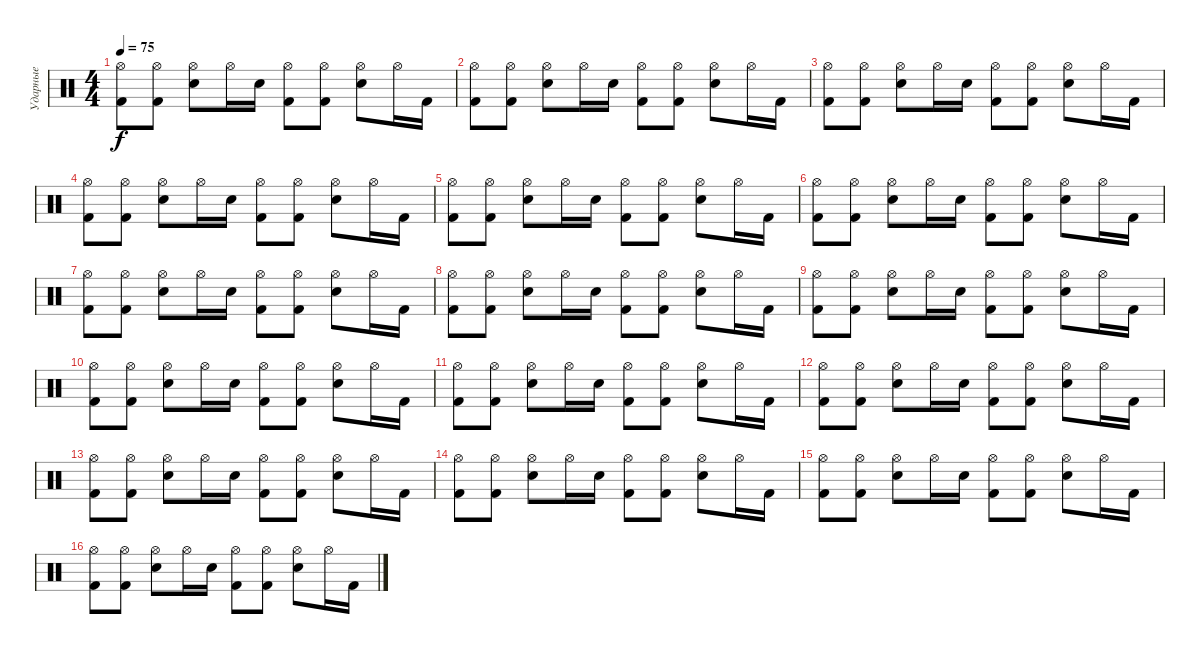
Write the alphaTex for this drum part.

\track ("Ударные" "Ударные") {instrument percussion}
\staff {score}
\articulation defaults
\ts (4 4)
\tempo 75
\clef neutral
\ks c
("Hi-Hat (open)" "Kick (hit) 2").8{dy f} ("Hi-Hat (open)" "Kick (hit) 2").8 ("Hi-Hat (open)" "Electric Snare (hit)").8 "Hi-Hat (open)".16 "Electric Snare (hit)".16 ("Hi-Hat (open)" "Kick (hit) 2").8 ("Hi-Hat (open)" "Kick (hit) 2").8 ("Hi-Hat (open)" "Electric Snare (hit)").8 "Hi-Hat (open)".16 "Kick (hit) 2".16 |
("Hi-Hat (open)" "Kick (hit) 2").8 ("Hi-Hat (open)" "Kick (hit) 2").8 ("Hi-Hat (open)" "Electric Snare (hit)").8 "Hi-Hat (open)".16 "Electric Snare (hit)".16 ("Hi-Hat (open)" "Kick (hit) 2").8 ("Hi-Hat (open)" "Kick (hit) 2").8 ("Hi-Hat (open)" "Electric Snare (hit)").8 "Hi-Hat (open)".16 "Kick (hit) 2".16 |
("Hi-Hat (open)" "Kick (hit) 2").8 ("Hi-Hat (open)" "Kick (hit) 2").8 ("Hi-Hat (open)" "Electric Snare (hit)").8 "Hi-Hat (open)".16 "Electric Snare (hit)".16 ("Hi-Hat (open)" "Kick (hit) 2").8 ("Hi-Hat (open)" "Kick (hit) 2").8 ("Hi-Hat (open)" "Electric Snare (hit)").8 "Hi-Hat (open)".16 "Kick (hit) 2".16 |
("Hi-Hat (open)" "Kick (hit) 2").8 ("Hi-Hat (open)" "Kick (hit) 2").8 ("Hi-Hat (open)" "Electric Snare (hit)").8 "Hi-Hat (open)".16 "Electric Snare (hit)".16 ("Hi-Hat (open)" "Kick (hit) 2").8 ("Hi-Hat (open)" "Kick (hit) 2").8 ("Hi-Hat (open)" "Electric Snare (hit)").8 "Hi-Hat (open)".16 "Kick (hit) 2".16 |
("Hi-Hat (open)" "Kick (hit) 2").8 ("Hi-Hat (open)" "Kick (hit) 2").8 ("Hi-Hat (open)" "Electric Snare (hit)").8 "Hi-Hat (open)".16 "Electric Snare (hit)".16 ("Hi-Hat (open)" "Kick (hit) 2").8 ("Hi-Hat (open)" "Kick (hit) 2").8 ("Hi-Hat (open)" "Electric Snare (hit)").8 "Hi-Hat (open)".16 "Kick (hit) 2".16 |
("Hi-Hat (open)" "Kick (hit) 2").8 ("Hi-Hat (open)" "Kick (hit) 2").8 ("Hi-Hat (open)" "Electric Snare (hit)").8 "Hi-Hat (open)".16 "Electric Snare (hit)".16 ("Hi-Hat (open)" "Kick (hit) 2").8 ("Hi-Hat (open)" "Kick (hit) 2").8 ("Hi-Hat (open)" "Electric Snare (hit)").8 "Hi-Hat (open)".16 "Kick (hit) 2".16 |
("Hi-Hat (open)" "Kick (hit) 2").8 ("Hi-Hat (open)" "Kick (hit) 2").8 ("Hi-Hat (open)" "Electric Snare (hit)").8 "Hi-Hat (open)".16 "Electric Snare (hit)".16 ("Hi-Hat (open)" "Kick (hit) 2").8 ("Hi-Hat (open)" "Kick (hit) 2").8 ("Hi-Hat (open)" "Electric Snare (hit)").8 "Hi-Hat (open)".16 "Kick (hit) 2".16 |
("Hi-Hat (open)" "Kick (hit) 2").8 ("Hi-Hat (open)" "Kick (hit) 2").8 ("Hi-Hat (open)" "Electric Snare (hit)").8 "Hi-Hat (open)".16 "Electric Snare (hit)".16 ("Hi-Hat (open)" "Kick (hit) 2").8 ("Hi-Hat (open)" "Kick (hit) 2").8 ("Hi-Hat (open)" "Electric Snare (hit)").8 "Hi-Hat (open)".16 "Kick (hit) 2".16 |
("Hi-Hat (open)" "Kick (hit) 2").8 ("Hi-Hat (open)" "Kick (hit) 2").8 ("Hi-Hat (open)" "Electric Snare (hit)").8 "Hi-Hat (open)".16 "Electric Snare (hit)".16 ("Hi-Hat (open)" "Kick (hit) 2").8 ("Hi-Hat (open)" "Kick (hit) 2").8 ("Hi-Hat (open)" "Electric Snare (hit)").8 "Hi-Hat (open)".16 "Kick (hit) 2".16 |
("Hi-Hat (open)" "Kick (hit) 2").8 ("Hi-Hat (open)" "Kick (hit) 2").8 ("Hi-Hat (open)" "Electric Snare (hit)").8 "Hi-Hat (open)".16 "Electric Snare (hit)".16 ("Hi-Hat (open)" "Kick (hit) 2").8 ("Hi-Hat (open)" "Kick (hit) 2").8 ("Hi-Hat (open)" "Electric Snare (hit)").8 "Hi-Hat (open)".16 "Kick (hit) 2".16 |
("Hi-Hat (open)" "Kick (hit) 2").8 ("Hi-Hat (open)" "Kick (hit) 2").8 ("Hi-Hat (open)" "Electric Snare (hit)").8 "Hi-Hat (open)".16 "Electric Snare (hit)".16 ("Hi-Hat (open)" "Kick (hit) 2").8 ("Hi-Hat (open)" "Kick (hit) 2").8 ("Hi-Hat (open)" "Electric Snare (hit)").8 "Hi-Hat (open)".16 "Kick (hit) 2".16 |
("Hi-Hat (open)" "Kick (hit) 2").8 ("Hi-Hat (open)" "Kick (hit) 2").8 ("Hi-Hat (open)" "Electric Snare (hit)").8 "Hi-Hat (open)".16 "Electric Snare (hit)".16 ("Hi-Hat (open)" "Kick (hit) 2").8 ("Hi-Hat (open)" "Kick (hit) 2").8 ("Hi-Hat (open)" "Electric Snare (hit)").8 "Hi-Hat (open)".16 "Kick (hit) 2".16 |
("Hi-Hat (open)" "Kick (hit) 2").8 ("Hi-Hat (open)" "Kick (hit) 2").8 ("Hi-Hat (open)" "Electric Snare (hit)").8 "Hi-Hat (open)".16 "Electric Snare (hit)".16 ("Hi-Hat (open)" "Kick (hit) 2").8 ("Hi-Hat (open)" "Kick (hit) 2").8 ("Hi-Hat (open)" "Electric Snare (hit)").8 "Hi-Hat (open)".16 "Kick (hit) 2".16 |
("Hi-Hat (open)" "Kick (hit) 2").8 ("Hi-Hat (open)" "Kick (hit) 2").8 ("Hi-Hat (open)" "Electric Snare (hit)").8 "Hi-Hat (open)".16 "Electric Snare (hit)".16 ("Hi-Hat (open)" "Kick (hit) 2").8 ("Hi-Hat (open)" "Kick (hit) 2").8 ("Hi-Hat (open)" "Electric Snare (hit)").8 "Hi-Hat (open)".16 "Kick (hit) 2".16 |
("Hi-Hat (open)" "Kick (hit) 2").8 ("Hi-Hat (open)" "Kick (hit) 2").8 ("Hi-Hat (open)" "Electric Snare (hit)").8 "Hi-Hat (open)".16 "Electric Snare (hit)".16 ("Hi-Hat (open)" "Kick (hit) 2").8 ("Hi-Hat (open)" "Kick (hit) 2").8 ("Hi-Hat (open)" "Electric Snare (hit)").8 "Hi-Hat (open)".16 "Kick (hit) 2".16 |
("Hi-Hat (open)" "Kick (hit) 2").8 ("Hi-Hat (open)" "Kick (hit) 2").8 ("Hi-Hat (open)" "Electric Snare (hit)").8 "Hi-Hat (open)".16 "Electric Snare (hit)".16 ("Hi-Hat (open)" "Kick (hit) 2").8 ("Hi-Hat (open)" "Kick (hit) 2").8 ("Hi-Hat (open)" "Electric Snare (hit)").8 "Hi-Hat (open)".16 "Kick (hit) 2".16
